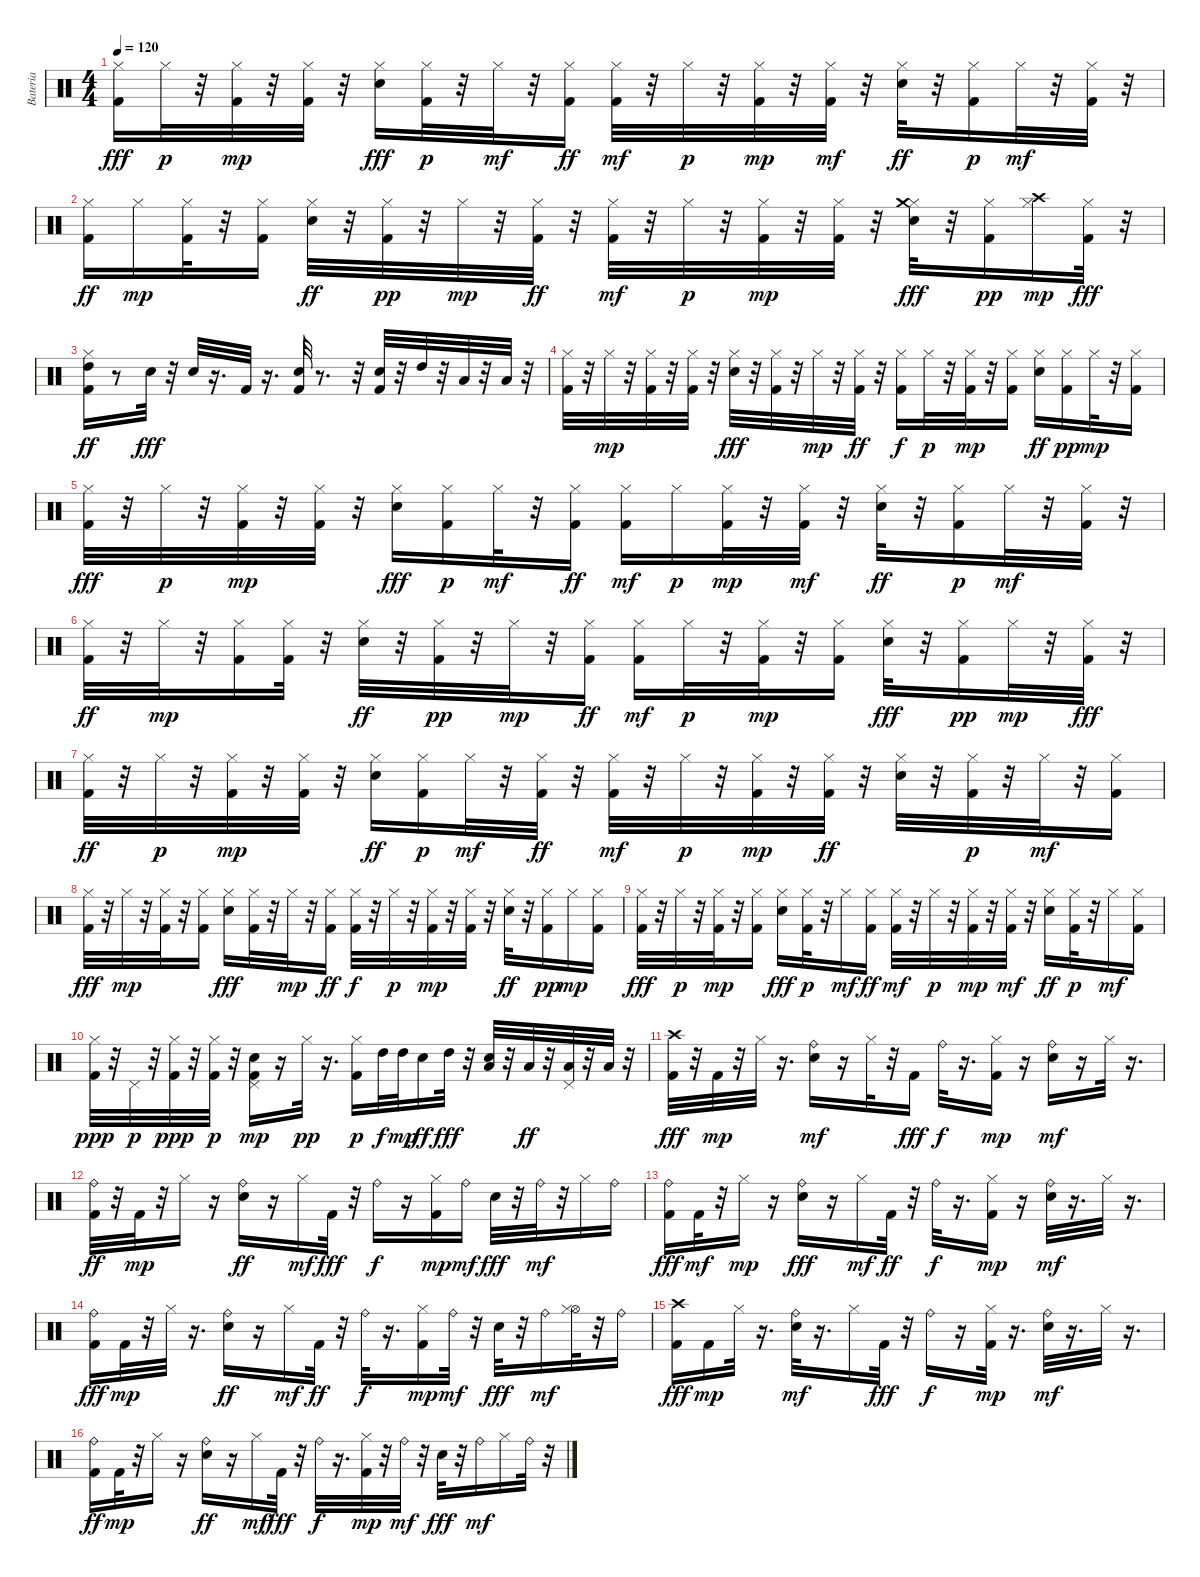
\track ("Bateria" "Bateria") {instrument percussion}
\staff {score}
\articulation defaults
\ts (4 4)
\tempo 120
\clef neutral
\ks c
("Hi-Hat (closed)" "Kick (hit) 2").16{dy fff} "Hi-Hat (closed)".32{dy p} r.32 ("Kick (hit) 2" "Hi-Hat (closed)").32{dy mp} r.32 ("Kick (hit) 2" "Hi-Hat (closed)").32 r.32 ("Hi-Hat (closed)" "Snare (hit) 2").16{dy fff} ("Kick (hit) 2" "Hi-Hat (closed)").32{dy p} r.32 "Hi-Hat (closed)".32{dy mf} r.32 ("Hi-Hat (closed)" "Kick (hit) 2").16{dy ff} ("Kick (hit) 2" "Hi-Hat (closed)").32{dy mf} r.32 "Hi-Hat (closed)".32{dy p} r.32 ("Kick (hit) 2" "Hi-Hat (closed)").32{dy mp} r.32 ("Hi-Hat (closed)" "Kick (hit) 2").32{dy mf} r.32 ("Hi-Hat (closed)" "Snare (hit) 2").32{dy ff} r.32 ("Kick (hit) 2" "Hi-Hat (closed)").16{dy p} "Hi-Hat (closed)".32{dy mf} r.32 ("Kick (hit) 2" "Hi-Hat (closed)").32 r.32 |
("Kick (hit) 2" "Hi-Hat (closed)").16{dy ff} "Hi-Hat (closed)".16{dy mp} ("Kick (hit) 2" "Hi-Hat (closed)").32 r.32 ("Kick (hit) 2" "Hi-Hat (closed)").16 ("Hi-Hat (closed)" "Snare (hit) 2").32{dy ff} r.32 ("Kick (hit) 2" "Hi-Hat (closed)").32{dy pp} r.32 "Hi-Hat (closed)".32{dy mp} r.32 ("Kick (hit) 2" "Hi-Hat (closed)").32{dy ff} r.32 ("Kick (hit) 2" "Hi-Hat (closed)").32{dy mf} r.32 "Hi-Hat (closed)".32{dy p} r.32 ("Kick (hit) 2" "Hi-Hat (closed)").32{dy mp} r.32 ("Kick (hit) 2" "Hi-Hat (closed)").32 r.32 ("Hi-Hat (closed)" "Crash medium (hit)" "Snare (hit) 2").32{dy fff} r.32 ("Kick (hit) 2" "Hi-Hat (closed)").16{dy pp} ("Hi-Hat (closed)" "Crash high (hit)").16{dy mp} ("Hi-Hat (closed)" "Kick (hit) 2").32{dy fff} r.32 |
("High Tom (hit)" "Kick (hit) 2" "Hi-Hat (closed)").16{dy ff} r.8 "Snare (hit) 2".32{dy fff} r.32 "Snare (hit) 2".32 r.16{d} "Kick (hit) 2".32 r.16{d} ("Kick (hit) 2" "Snare (hit) 2").32 r.8{d} r.32 ("Kick (hit) 2" "Snare (hit) 2").32 r.32 "High Tom (hit)".32 r.32 "Low Tom (hit)".32 r.32 "Low Floor Tom (hit)".32 r.32 |
("Hi-Hat (closed)" "Kick (hit) 2").32 r.32 "Hi-Hat (closed)".32{dy mp} r.32 ("Kick (hit) 2" "Hi-Hat (closed)").32 r.32 ("Kick (hit) 2" "Hi-Hat (closed)").32 r.32 ("Hi-Hat (closed)" "Snare (hit) 2").32{dy fff} r.32 ("Hi-Hat (closed)" "Kick (hit) 2").32 r.32 "Hi-Hat (closed)".32{dy mp} r.32 ("Kick (hit) 2" "Hi-Hat (closed)").32{dy ff} r.32 ("Hi-Hat (closed)" "Kick (hit) 2").16{dy f} "Hi-Hat (closed)".32{dy p} r.32 ("Kick (hit) 2" "Hi-Hat (closed)").32{dy mp} r.32 ("Kick (hit) 2" "Hi-Hat (closed)").16 ("Hi-Hat (closed)" "Snare (hit) 2").16{dy ff} ("Kick (hit) 2" "Hi-Hat (closed)").16{dy pp} "Hi-Hat (closed)".32{dy mp} r.32 ("Kick (hit) 2" "Hi-Hat (closed)").16 |
("Hi-Hat (closed)" "Kick (hit) 2").32{dy fff} r.32 "Hi-Hat (closed)".32{dy p} r.32 ("Kick (hit) 2" "Hi-Hat (closed)").32{dy mp} r.32 ("Kick (hit) 2" "Hi-Hat (closed)").32 r.32 ("Hi-Hat (closed)" "Snare (hit) 2").16{dy fff} ("Kick (hit) 2" "Hi-Hat (closed)").16{dy p} "Hi-Hat (closed)".32{dy mf} r.32 ("Hi-Hat (closed)" "Kick (hit) 2").16{dy ff} ("Kick (hit) 2" "Hi-Hat (closed)").16{dy mf} "Hi-Hat (closed)".16{dy p} ("Kick (hit) 2" "Hi-Hat (closed)").32{dy mp} r.32 ("Hi-Hat (closed)" "Kick (hit) 2").32{dy mf} r.32 ("Hi-Hat (closed)" "Snare (hit) 2").32{dy ff} r.32 ("Kick (hit) 2" "Hi-Hat (closed)").16{dy p} "Hi-Hat (closed)".32{dy mf} r.32 ("Kick (hit) 2" "Hi-Hat (closed)").32 r.32 |
("Kick (hit) 2" "Hi-Hat (closed)").32{dy ff} r.32 "Hi-Hat (closed)".32{dy mp} r.32 ("Kick (hit) 2" "Hi-Hat (closed)").16 ("Kick (hit) 2" "Hi-Hat (closed)").32 r.32 ("Hi-Hat (closed)" "Snare (hit) 2").32{dy ff} r.32 ("Kick (hit) 2" "Hi-Hat (closed)").32{dy pp} r.32 "Hi-Hat (closed)".32{dy mp} r.32 ("Kick (hit) 2" "Hi-Hat (closed)").16{dy ff} ("Kick (hit) 2" "Hi-Hat (closed)").16{dy mf} "Hi-Hat (closed)".32{dy p} r.32 ("Kick (hit) 2" "Hi-Hat (closed)").32{dy mp} r.32 ("Kick (hit) 2" "Hi-Hat (closed)").16 ("Hi-Hat (closed)" "Snare (hit) 2").32{dy fff} r.32 ("Kick (hit) 2" "Hi-Hat (closed)").16{dy pp} "Hi-Hat (closed)".32{dy mp} r.32 ("Hi-Hat (closed)" "Kick (hit) 2").32{dy fff} r.32 |
("Kick (hit) 2" "Hi-Hat (closed)").32{dy ff} r.32 "Hi-Hat (closed)".32{dy p} r.32 ("Kick (hit) 2" "Hi-Hat (closed)").32{dy mp} r.32 ("Kick (hit) 2" "Hi-Hat (closed)").32 r.32 ("Hi-Hat (closed)" "Snare (hit) 2").16{dy ff} ("Kick (hit) 2" "Hi-Hat (closed)").16{dy p} "Hi-Hat (closed)".32{dy mf} r.32 ("Kick (hit) 2" "Hi-Hat (closed)").32{dy ff} r.32 ("Kick (hit) 2" "Hi-Hat (closed)").32{dy mf} r.32 "Hi-Hat (closed)".32{dy p} r.32 ("Kick (hit) 2" "Hi-Hat (closed)").32{dy mp} r.32 ("Kick (hit) 2" "Hi-Hat (closed)").32{dy ff} r.32 ("Hi-Hat (closed)" "Snare (hit) 2").32 r.32 ("Kick (hit) 2" "Hi-Hat (closed)").32{dy p} r.32 "Hi-Hat (closed)".32{dy mf} r.32 ("Kick (hit) 2" "Hi-Hat (closed)").16 |
("Hi-Hat (closed)" "Kick (hit) 2").32{dy fff} r.32 "Hi-Hat (closed)".32{dy mp} r.32 ("Kick (hit) 2" "Hi-Hat (closed)").32 r.32 ("Kick (hit) 2" "Hi-Hat (closed)").16 ("Hi-Hat (closed)" "Snare (hit) 2").16{dy fff} ("Hi-Hat (closed)" "Kick (hit) 2").32 r.32 "Hi-Hat (closed)".32{dy mp} r.32 ("Kick (hit) 2" "Hi-Hat (closed)").16{dy ff} ("Hi-Hat (closed)" "Kick (hit) 2").32{dy f} r.32 "Hi-Hat (closed)".32{dy p} r.32 ("Kick (hit) 2" "Hi-Hat (closed)").32{dy mp} r.32 ("Kick (hit) 2" "Hi-Hat (closed)").32 r.32 ("Hi-Hat (closed)" "Snare (hit) 2").32{dy ff} r.32 ("Kick (hit) 2" "Hi-Hat (closed)").16{dy pp} "Hi-Hat (closed)".16{dy mp} ("Kick (hit) 2" "Hi-Hat (closed)").16 |
("Hi-Hat (closed)" "Kick (hit) 2").32{dy fff} r.32 "Hi-Hat (closed)".32{dy p} r.32 ("Kick (hit) 2" "Hi-Hat (closed)").32{dy mp} r.32 ("Kick (hit) 2" "Hi-Hat (closed)").16 ("Hi-Hat (closed)" "Snare (hit) 2").16{dy fff} ("Kick (hit) 2" "Hi-Hat (closed)").32{dy p} r.32 "Hi-Hat (closed)".16{dy mf} ("Hi-Hat (closed)" "Kick (hit) 2").16{dy ff} ("Kick (hit) 2" "Hi-Hat (closed)").32{dy mf} r.32 "Hi-Hat (closed)".32{dy p} r.32 ("Kick (hit) 2" "Hi-Hat (closed)").32{dy mp} r.32 ("Hi-Hat (closed)" "Kick (hit) 2").32{dy mf} r.32 ("Hi-Hat (closed)" "Snare (hit) 2").16{dy ff} ("Kick (hit) 2" "Hi-Hat (closed)").32{dy p} r.32 "Hi-Hat (closed)".16{dy mf} ("Kick (hit) 2" "Hi-Hat (closed)").16 |
("Kick (hit) 2" "Hi-Hat (closed)").32{dy ppp} r.32 "Pedal Hi-Hat (hit)".32{dy p} r.32 ("Kick (hit) 2" "Hi-Hat (closed)").32{dy ppp} r.32 ("Kick (hit) 2" "Hi-Hat (closed)").32{dy p} r.32 ("Kick (hit) 2" "Snare (hit) 2" "Pedal Hi-Hat (hit)").16{dy mp} r.16 "Hi-Hat (closed)".32{dy pp} r.16{d} ("Kick (hit) 2" "Hi-Hat (closed)").16{dy p} "High Tom (hit)".32{dy f} "High Tom (hit)".32{dy mp} "Snare (hit) 2".16{dy ff} "High Tom (hit)".32{dy fff} r.32 ("Low Tom (hit)" "Snare (hit) 2").32 r.32 "Low Tom (hit)".32{dy ff} r.32 ("Pedal Hi-Hat (hit)" "Low Floor Tom (hit)").32 r.32 "Low Floor Tom (hit)".32 r.32 |
("Kick (hit) 2" "Crash high (hit)").32{dy fff} r.32 "Kick (hit) 2".32{dy mp} r.32 "Hi-Hat (closed)".32 r.16{d} ("Snare (hit) 2" "Ride (bell)").16{dy mf} r.16 "Hi-Hat (closed)".32 r.32 "Kick (hit) 2".16{dy fff} "Ride (bell)".32{dy f} r.16{d} ("Kick (hit) 2" "Hi-Hat (closed)").16{dy mp} r.16 ("Snare (hit) 2" "Ride (bell)").16{dy mf} r.16 "Hi-Hat (closed)".32 r.16{d} |
("Kick (hit) 2" "Ride (bell)").32{dy ff} r.32 "Kick (hit) 2".32{dy mp} r.32 "Hi-Hat (closed)".16 r.16 ("Ride (bell)" "Snare (hit) 2").16{dy ff} r.16 "Hi-Hat (closed)".16{dy mf} "Kick (hit) 2".32{dy fff} r.32 "Ride (bell)".16{dy f} r.16 ("Kick (hit) 2" "Hi-Hat (closed)").16{dy mp} "Ride (bell)".16{dy mf} "Snare (hit) 2".32{dy fff} r.32 "Ride (bell)".32{dy mf} r.32 "Hi-Hat (closed)".16 "Ride (bell)".16 |
("Kick (hit) 2" "Ride (bell)").16{dy fff} "Kick (hit) 2".32{dy mf} r.32 "Hi-Hat (closed)".16{dy mp} r.16 ("Ride (bell)" "Snare (hit) 2").16{dy fff} r.16 "Hi-Hat (closed)".16{dy mf} "Kick (hit) 2".32{dy ff} r.32 "Ride (bell)".32{dy f} r.16{d} ("Kick (hit) 2" "Hi-Hat (closed)").16{dy mp} r.16 ("Snare (hit) 2" "Ride (bell)").32{dy mf} r.16{d} "Hi-Hat (closed)".32 r.16{d} |
("Kick (hit) 2" "Ride (bell)").16{dy fff} "Kick (hit) 2".32{dy mp} r.32 "Hi-Hat (closed)".32 r.16{d} ("Ride (bell)" "Snare (hit) 2").16{dy ff} r.16 "Hi-Hat (closed)".16{dy mf} "Kick (hit) 2".32{dy ff} r.32 "Ride (bell)".32{dy f} r.16{d} ("Kick (hit) 2" "Hi-Hat (closed)").16{dy mp} "Ride (bell)".32{dy mf} r.32 "Snare (hit) 2".32{dy fff} r.32 "Ride (bell)".16{dy mf} ("Hi-Hat (open)" "Hi-Hat (closed)").32 r.32 "Ride (bell)".16 |
("Kick (hit) 2" "Crash high (hit)").16{dy fff} "Kick (hit) 2".16{dy mp} "Hi-Hat (closed)".32 r.16{d} ("Snare (hit) 2" "Ride (bell)").32{dy mf} r.16{d} "Hi-Hat (closed)".16 "Kick (hit) 2".32{dy fff} r.32 "Ride (bell)".16{dy f} r.16 ("Kick (hit) 2" "Hi-Hat (closed)").32{dy mp} r.16{d} ("Snare (hit) 2" "Ride (bell)").32{dy mf} r.16{d} "Hi-Hat (closed)".32 r.16{d} |
("Kick (hit) 2" "Ride (bell)").16{dy ff} "Kick (hit) 2".32{dy mp} r.32 "Hi-Hat (closed)".16 r.16 ("Ride (bell)" "Snare (hit) 2").16{dy ff} r.16 "Hi-Hat (closed)".16{dy mf} "Kick (hit) 2".32{dy fff} r.32 "Ride (bell)".32{dy f} r.16{d} ("Kick (hit) 2" "Hi-Hat (closed)").32{dy mp} r.32 "Ride (bell)".32{dy mf} r.32 "Snare (hit) 2".32{dy fff} r.32 "Ride (bell)".16{dy mf} "Hi-Hat (closed)".16 "Ride (bell)".32 r.32
